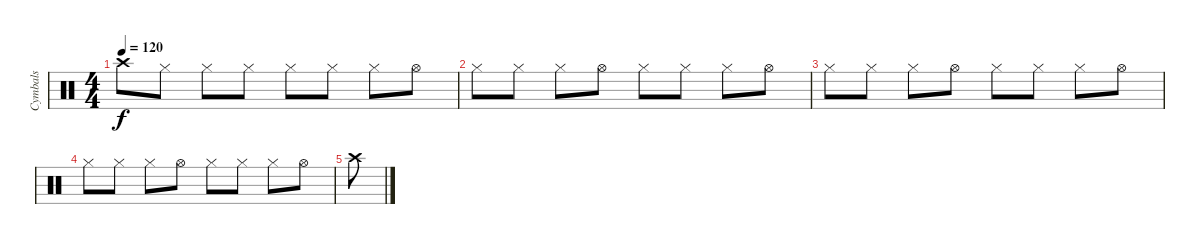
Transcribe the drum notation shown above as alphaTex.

\track ("Cymbals" "Cymbals") {instrument percussion}
\staff {score}
\articulation defaults
\ts (4 4)
\tempo 120
\clef neutral
\ks c "Crash high (hit)".8{dy f} "Hi-Hat (closed)".8 "Hi-Hat (closed)".8 "Hi-Hat (closed)".8 "Hi-Hat (closed)".8 "Hi-Hat (closed)".8 "Hi-Hat (closed)".8 "Hi-Hat (open)".8
|
"Hi-Hat (closed)".8 "Hi-Hat (closed)".8 "Hi-Hat (closed)".8 "Hi-Hat (open)".8 "Hi-Hat (closed)".8 "Hi-Hat (closed)".8 "Hi-Hat (closed)".8 "Hi-Hat (open)".8 |
"Hi-Hat (closed)".8 "Hi-Hat (closed)".8 "Hi-Hat (closed)".8 "Hi-Hat (open)".8 "Hi-Hat (closed)".8 "Hi-Hat (closed)".8 "Hi-Hat (closed)".8 "Hi-Hat (open)".8 |
"Hi-Hat (closed)".8 "Hi-Hat (closed)".8 "Hi-Hat (closed)".8 "Hi-Hat (open)".8 "Hi-Hat (closed)".8 "Hi-Hat (closed)".8 "Hi-Hat (closed)".8 "Hi-Hat (open)".8 |
"Crash high (hit)".8
